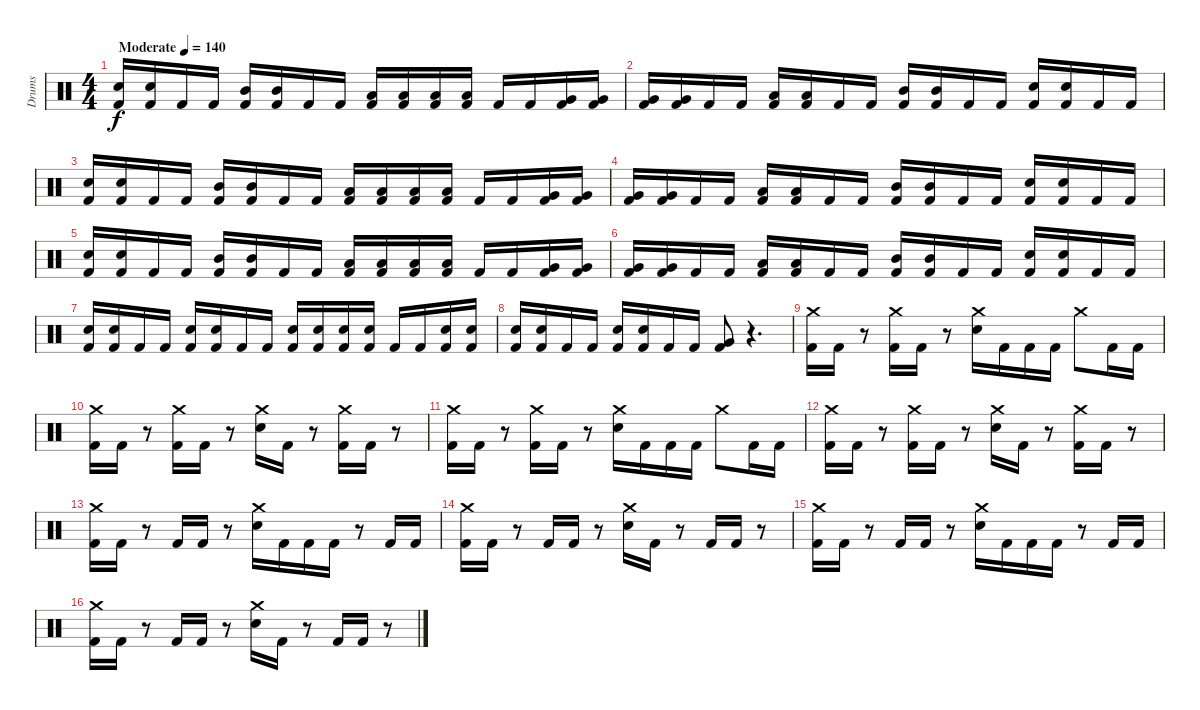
\track ("Drums" "Drums") {instrument percussion}
\staff {score}
\articulation defaults
\ts (4 4)
\tempo (140 "Moderate")
\tempo 148
\tempo (140 "Moderate")
\clef neutral
\ks c
("Electric Snare (hit)" "Kick (hit) 2").16{dy f} ("Electric Snare (hit)" "Kick (hit) 2").16 "Kick (hit) 2".16 "Kick (hit) 2".16 ("Mid Tom (hit)" "Kick (hit) 2").16 ("Mid Tom (hit)" "Kick (hit) 2").16 "Kick (hit) 2".16 "Kick (hit) 2".16 ("Low Tom (hit)" "Kick (hit) 2").16 ("Low Tom (hit)" "Kick (hit) 2").16 ("Low Tom (hit)" "Kick (hit) 2").16 ("Low Tom (hit)" "Kick (hit) 2").16 "Kick (hit) 2".16 "Kick (hit) 2".16 ("Very Low Tom (hit)" "Kick (hit) 2").16 ("Very Low Tom (hit)" "Kick (hit) 2").16 |
("Very Low Tom (hit)" "Kick (hit) 2").16 ("Very Low Tom (hit)" "Kick (hit) 2").16 "Kick (hit) 2".16 "Kick (hit) 2".16 ("Low Tom (hit)" "Kick (hit) 2").16 ("Low Tom (hit)" "Kick (hit) 2").16 "Kick (hit) 2".16 "Kick (hit) 2".16 ("Mid Tom (hit)" "Kick (hit) 2").16 ("Mid Tom (hit)" "Kick (hit) 2").16 "Kick (hit) 2".16 "Kick (hit) 2".16 ("Electric Snare (hit)" "Kick (hit) 2").16 ("Electric Snare (hit)" "Kick (hit) 2").16 "Kick (hit) 2".16 "Kick (hit) 2".16 |
("Electric Snare (hit)" "Kick (hit) 2").16 ("Electric Snare (hit)" "Kick (hit) 2").16 "Kick (hit) 2".16 "Kick (hit) 2".16 ("Mid Tom (hit)" "Kick (hit) 2").16 ("Mid Tom (hit)" "Kick (hit) 2").16 "Kick (hit) 2".16 "Kick (hit) 2".16 ("Low Tom (hit)" "Kick (hit) 2").16 ("Low Tom (hit)" "Kick (hit) 2").16 ("Low Tom (hit)" "Kick (hit) 2").16 ("Low Tom (hit)" "Kick (hit) 2").16 "Kick (hit) 2".16 "Kick (hit) 2".16 ("Very Low Tom (hit)" "Kick (hit) 2").16 ("Very Low Tom (hit)" "Kick (hit) 2").16 |
("Very Low Tom (hit)" "Kick (hit) 2").16 ("Very Low Tom (hit)" "Kick (hit) 2").16 "Kick (hit) 2".16 "Kick (hit) 2".16 ("Low Tom (hit)" "Kick (hit) 2").16 ("Low Tom (hit)" "Kick (hit) 2").16 "Kick (hit) 2".16 "Kick (hit) 2".16 ("Mid Tom (hit)" "Kick (hit) 2").16 ("Mid Tom (hit)" "Kick (hit) 2").16 "Kick (hit) 2".16 "Kick (hit) 2".16 ("Electric Snare (hit)" "Kick (hit) 2").16 ("Electric Snare (hit)" "Kick (hit) 2").16 "Kick (hit) 2".16 "Kick (hit) 2".16 |
("Electric Snare (hit)" "Kick (hit) 2").16 ("Electric Snare (hit)" "Kick (hit) 2").16 "Kick (hit) 2".16 "Kick (hit) 2".16 ("Mid Tom (hit)" "Kick (hit) 2").16 ("Mid Tom (hit)" "Kick (hit) 2").16 "Kick (hit) 2".16 "Kick (hit) 2".16 ("Low Tom (hit)" "Kick (hit) 2").16 ("Low Tom (hit)" "Kick (hit) 2").16 ("Low Tom (hit)" "Kick (hit) 2").16 ("Low Tom (hit)" "Kick (hit) 2").16 "Kick (hit) 2".16 "Kick (hit) 2".16 ("Very Low Tom (hit)" "Kick (hit) 2").16 ("Very Low Tom (hit)" "Kick (hit) 2").16 |
("Very Low Tom (hit)" "Kick (hit) 2").16 ("Very Low Tom (hit)" "Kick (hit) 2").16 "Kick (hit) 2".16 "Kick (hit) 2".16 ("Low Tom (hit)" "Kick (hit) 2").16 ("Low Tom (hit)" "Kick (hit) 2").16 "Kick (hit) 2".16 "Kick (hit) 2".16 ("Mid Tom (hit)" "Kick (hit) 2").16 ("Mid Tom (hit)" "Kick (hit) 2").16 "Kick (hit) 2".16 "Kick (hit) 2".16 ("Electric Snare (hit)" "Kick (hit) 2").16 ("Electric Snare (hit)" "Kick (hit) 2").16 "Kick (hit) 2".16 "Kick (hit) 2".16 |
("Electric Snare (hit)" "Kick (hit) 2").16 ("Electric Snare (hit)" "Kick (hit) 2").16 "Kick (hit) 2".16 "Kick (hit) 2".16 ("Electric Snare (hit)" "Kick (hit) 2").16 ("Electric Snare (hit)" "Kick (hit) 2").16 "Kick (hit) 2".16 "Kick (hit) 2".16 ("Electric Snare (hit)" "Kick (hit) 2").16 ("Electric Snare (hit)" "Kick (hit) 2").16 ("Electric Snare (hit)" "Kick (hit) 2").16 ("Electric Snare (hit)" "Kick (hit) 2").16 "Kick (hit) 2".16 "Kick (hit) 2".16 ("Electric Snare (hit)" "Kick (hit) 2").16 ("Electric Snare (hit)" "Kick (hit) 2").16 |
("Electric Snare (hit)" "Kick (hit) 2").16 ("Electric Snare (hit)" "Kick (hit) 2").16 "Kick (hit) 2".16 "Kick (hit) 2".16 ("Electric Snare (hit)" "Kick (hit) 2").16 ("Electric Snare (hit)" "Kick (hit) 2").16 "Kick (hit) 2".16 "Kick (hit) 2".16 ("Very Low Tom (hit)" "Kick (hit) 2").8 r.4{d} |
("Crash medium (hit)" "Kick (hit) 2").16 "Kick (hit) 2".16 r.8 ("Crash medium (hit)" "Kick (hit) 2").16 "Kick (hit) 2".16 r.8 ("Crash medium (hit)" "Electric Snare (hit)").16 "Kick (hit) 2".16 "Kick (hit) 2".16 "Kick (hit) 2".16 "Crash medium (hit)".8 "Kick (hit) 2".16 "Kick (hit) 2".16 |
("Crash medium (hit)" "Kick (hit) 2").16 "Kick (hit) 2".16 r.8 ("Crash medium (hit)" "Kick (hit) 2").16 "Kick (hit) 2".16 r.8 ("Crash medium (hit)" "Electric Snare (hit)").16 "Kick (hit) 2".16 r.8 ("Crash medium (hit)" "Kick (hit) 2").16 "Kick (hit) 2".16 r.8 |
("Crash medium (hit)" "Kick (hit) 2").16 "Kick (hit) 2".16 r.8 ("Crash medium (hit)" "Kick (hit) 2").16 "Kick (hit) 2".16 r.8 ("Crash medium (hit)" "Electric Snare (hit)").16 "Kick (hit) 2".16 "Kick (hit) 2".16 "Kick (hit) 2".16 "Crash medium (hit)".8 "Kick (hit) 2".16 "Kick (hit) 2".16 |
("Crash medium (hit)" "Kick (hit) 2").16 "Kick (hit) 2".16 r.8 ("Crash medium (hit)" "Kick (hit) 2").16 "Kick (hit) 2".16 r.8 ("Crash medium (hit)" "Electric Snare (hit)").16 "Kick (hit) 2".16 r.8 ("Crash medium (hit)" "Kick (hit) 2").16 "Kick (hit) 2".16 r.8 |
("Crash medium (hit)" "Kick (hit) 2").16 "Kick (hit) 2".16 r.8 "Kick (hit) 2".16 "Kick (hit) 2".16 r.8 ("Crash medium (hit)" "Electric Snare (hit)").16 "Kick (hit) 2".16 "Kick (hit) 2".16 "Kick (hit) 2".16 r.8 "Kick (hit) 2".16 "Kick (hit) 2".16 |
("Crash medium (hit)" "Kick (hit) 2").16 "Kick (hit) 2".16 r.8 "Kick (hit) 2".16 "Kick (hit) 2".16 r.8 ("Crash medium (hit)" "Electric Snare (hit)").16 "Kick (hit) 2".16 r.8 "Kick (hit) 2".16 "Kick (hit) 2".16 r.8 |
("Crash medium (hit)" "Kick (hit) 2").16 "Kick (hit) 2".16 r.8 "Kick (hit) 2".16 "Kick (hit) 2".16 r.8 ("Crash medium (hit)" "Electric Snare (hit)").16 "Kick (hit) 2".16 "Kick (hit) 2".16 "Kick (hit) 2".16 r.8 "Kick (hit) 2".16 "Kick (hit) 2".16 |
("Crash medium (hit)" "Kick (hit) 2").16 "Kick (hit) 2".16 r.8 "Kick (hit) 2".16 "Kick (hit) 2".16 r.8 ("Crash medium (hit)" "Electric Snare (hit)").16 "Kick (hit) 2".16 r.8 "Kick (hit) 2".16 "Kick (hit) 2".16 r.8
